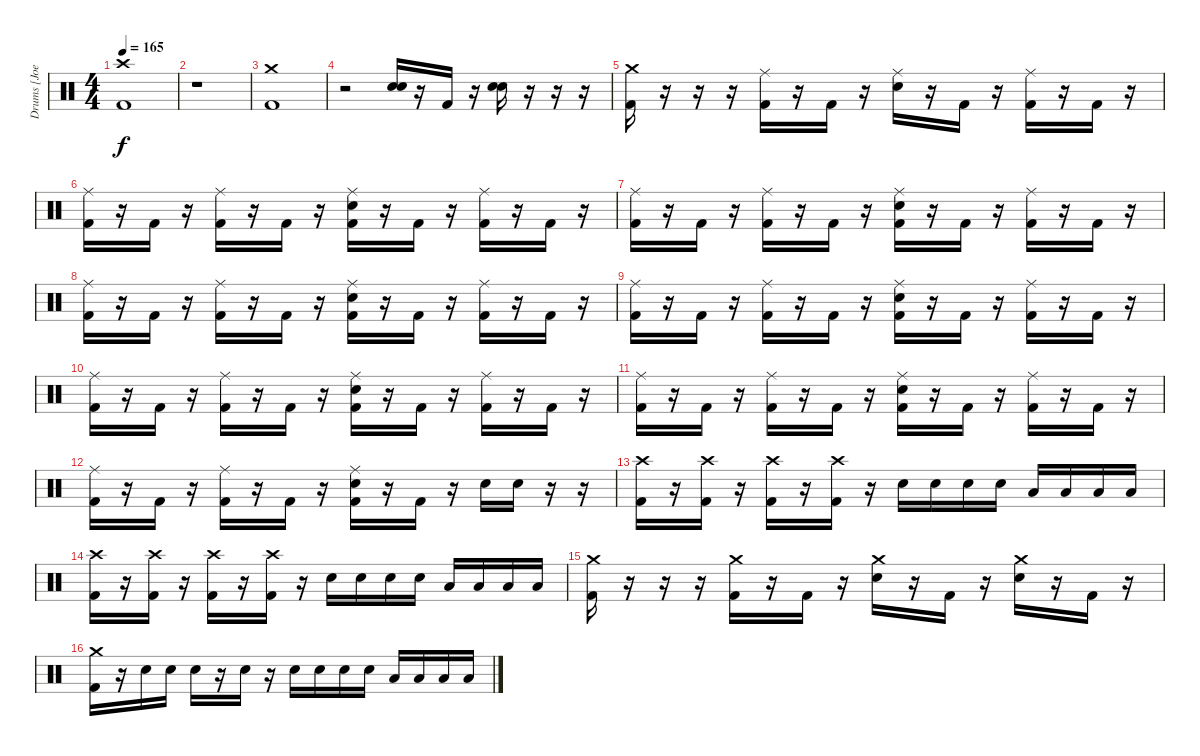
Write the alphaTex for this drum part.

\track ("Drums [Joel Paolucci]" "Drums [Joe") {instrument percussion}
\staff {score}
\articulation defaults
\ts (4 4)
\tempo 165
\clef neutral
\ks c
("Crash high (hit)" "Kick (hit) 2").1{dy f} |
r.1 |
("Crash medium (hit)" "Kick (hit) 2").1 |
r.2 ("Electric Snare (hit)" "Electric Snare (hit)").16 r.16 "Kick (hit) 2".16 r.16 ("Electric Snare (hit)" "Electric Snare (hit)").16 r.16 r.16 r.16 |
("Crash medium (hit)" "Kick (hit) 2").16 r.16 r.16 r.16 ("Ride (middle)" "Kick (hit) 2").16 r.16 "Kick (hit) 2".16 r.16 ("Ride (middle)" "Electric Snare (hit)").16 r.16 "Kick (hit) 2".16 r.16 ("Ride (middle)" "Kick (hit) 2").16 r.16 "Kick (hit) 2".16 r.16 |
("Ride (middle)" "Kick (hit) 2").16 r.16 "Kick (hit) 2".16 r.16 ("Ride (middle)" "Kick (hit) 2").16 r.16 "Kick (hit) 2".16 r.16 ("Ride (middle)" "Electric Snare (hit)" "Kick (hit) 2").16 r.16 "Kick (hit) 2".16 r.16 ("Ride (middle)" "Kick (hit) 2").16 r.16 "Kick (hit) 2".16 r.16 |
("Ride (middle)" "Kick (hit) 2").16 r.16 "Kick (hit) 2".16 r.16 ("Ride (middle)" "Kick (hit) 2").16 r.16 "Kick (hit) 2".16 r.16 ("Ride (middle)" "Electric Snare (hit)" "Kick (hit) 2").16 r.16 "Kick (hit) 2".16 r.16 ("Ride (middle)" "Kick (hit) 2").16 r.16 "Kick (hit) 2".16 r.16 |
("Ride (middle)" "Kick (hit) 2").16 r.16 "Kick (hit) 2".16 r.16 ("Ride (middle)" "Kick (hit) 2").16 r.16 "Kick (hit) 2".16 r.16 ("Ride (middle)" "Electric Snare (hit)" "Kick (hit) 2").16 r.16 "Kick (hit) 2".16 r.16 ("Ride (middle)" "Kick (hit) 2").16 r.16 "Kick (hit) 2".16 r.16 |
("Ride (middle)" "Kick (hit) 2").16 r.16 "Kick (hit) 2".16 r.16 ("Ride (middle)" "Kick (hit) 2").16 r.16 "Kick (hit) 2".16 r.16 ("Ride (middle)" "Electric Snare (hit)" "Kick (hit) 2").16 r.16 "Kick (hit) 2".16 r.16 ("Ride (middle)" "Kick (hit) 2").16 r.16 "Kick (hit) 2".16 r.16 |
("Ride (middle)" "Kick (hit) 2").16 r.16 "Kick (hit) 2".16 r.16 ("Ride (middle)" "Kick (hit) 2").16 r.16 "Kick (hit) 2".16 r.16 ("Ride (middle)" "Electric Snare (hit)" "Kick (hit) 2").16 r.16 "Kick (hit) 2".16 r.16 ("Ride (middle)" "Kick (hit) 2").16 r.16 "Kick (hit) 2".16 r.16 |
("Ride (middle)" "Kick (hit) 2").16 r.16 "Kick (hit) 2".16 r.16 ("Ride (middle)" "Kick (hit) 2").16 r.16 "Kick (hit) 2".16 r.16 ("Ride (middle)" "Electric Snare (hit)" "Kick (hit) 2").16 r.16 "Kick (hit) 2".16 r.16 ("Ride (middle)" "Kick (hit) 2").16 r.16 "Kick (hit) 2".16 r.16 |
("Ride (middle)" "Kick (hit) 2").16 r.16 "Kick (hit) 2".16 r.16 ("Ride (middle)" "Kick (hit) 2").16 r.16 "Kick (hit) 2".16 r.16 ("Ride (middle)" "Electric Snare (hit)" "Kick (hit) 2").16 r.16 "Kick (hit) 2".16 r.16 "Electric Snare (hit)".16 "Electric Snare (hit)".16 r.16 r.16 |
("Crash high (hit)" "Kick (hit) 2").16 r.16 ("Crash high (hit)" "Kick (hit) 2").16 r.16 ("Crash high (hit)" "Kick (hit) 2").16 r.16 ("Crash high (hit)" "Kick (hit) 2").16 r.16 "Electric Snare (hit)".16 "Electric Snare (hit)".16 "Electric Snare (hit)".16 "Electric Snare (hit)".16 "Low Floor Tom (hit)".16 "Low Floor Tom (hit)".16 "Low Floor Tom (hit)".16 "Low Floor Tom (hit)".16 |
("Crash high (hit)" "Kick (hit) 2").16 r.16 ("Crash high (hit)" "Kick (hit) 2").16 r.16 ("Crash high (hit)" "Kick (hit) 2").16 r.16 ("Crash high (hit)" "Kick (hit) 2").16 r.16 "Electric Snare (hit)".16 "Electric Snare (hit)".16 "Electric Snare (hit)".16 "Electric Snare (hit)".16 "Low Floor Tom (hit)".16 "Low Floor Tom (hit)".16 "Low Floor Tom (hit)".16 "Low Floor Tom (hit)".16 |
("Crash medium (hit)" "Kick (hit) 2").16 r.16 r.16 r.16 ("Crash medium (hit)" "Kick (hit) 2").16 r.16 "Kick (hit) 2".16 r.16 ("Crash medium (hit)" "Electric Snare (hit)").16 r.16 "Kick (hit) 2".16 r.16 ("Crash medium (hit)" "Electric Snare (hit)").16 r.16 "Kick (hit) 2".16 r.16 |
("Crash medium (hit)" "Kick (hit) 2").16 r.16 "Electric Snare (hit)".16 "Electric Snare (hit)".16 "Electric Snare (hit)".16 r.16 "Electric Snare (hit)".16 r.16 "Electric Snare (hit)".16 "Electric Snare (hit)".16 "Electric Snare (hit)".16 "Electric Snare (hit)".16 "Low Floor Tom (hit)".16 "Low Floor Tom (hit)".16 "Low Floor Tom (hit)".16 "Low Floor Tom (hit)".16
